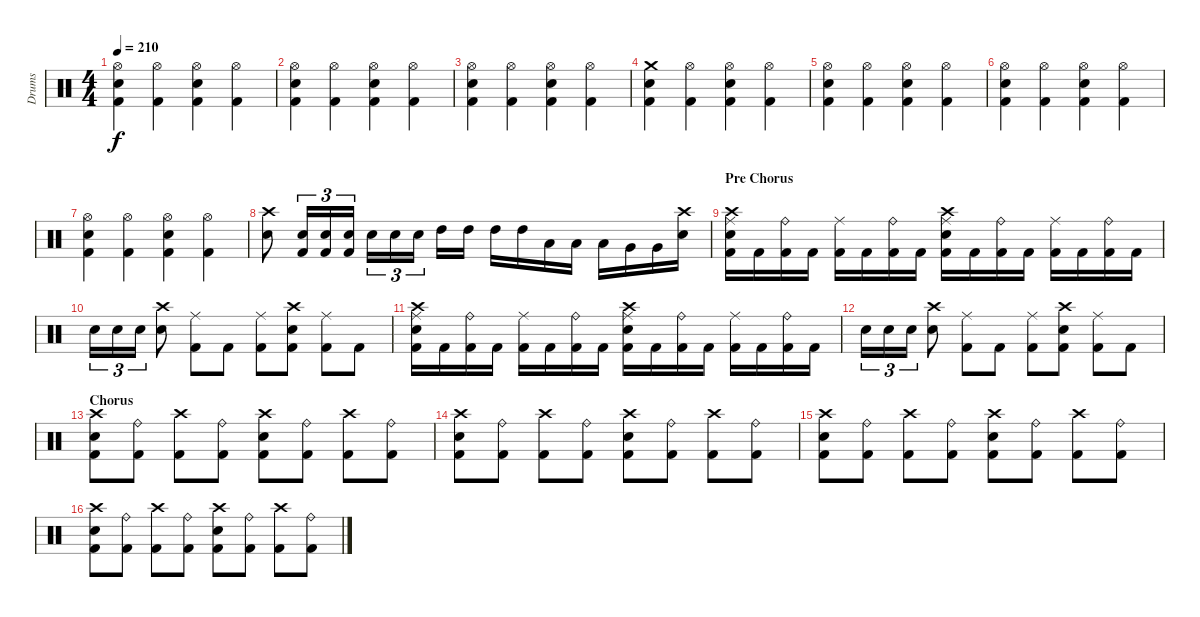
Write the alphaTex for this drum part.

\track ("Drums" "Drums") {instrument percussion}
\staff {score}
\articulation defaults
\ts (4 4)
\tempo 210
\clef neutral
\ks c
("Hi-Hat (open)" "Electric Snare (hit)" "Kick (hit) 2").4{dy f} ("Hi-Hat (open)" "Kick (hit) 2").4 ("Hi-Hat (open)" "Electric Snare (hit)" "Kick (hit) 2").4 ("Hi-Hat (open)" "Kick (hit) 2").4 |
("Hi-Hat (open)" "Electric Snare (hit)" "Kick (hit) 2").4 ("Hi-Hat (open)" "Kick (hit) 2").4 ("Hi-Hat (open)" "Electric Snare (hit)" "Kick (hit) 2").4 ("Hi-Hat (open)" "Kick (hit) 2").4 |
("Hi-Hat (open)" "Electric Snare (hit)" "Kick (hit) 2").4 ("Hi-Hat (open)" "Kick (hit) 2").4 ("Hi-Hat (open)" "Electric Snare (hit)" "Kick (hit) 2").4 ("Hi-Hat (open)" "Kick (hit) 2").4 |
("Crash medium (hit)" "Electric Snare (hit)" "Kick (hit) 2").4 ("Hi-Hat (open)" "Kick (hit) 2").4 ("Hi-Hat (open)" "Electric Snare (hit)" "Kick (hit) 2").4 ("Hi-Hat (open)" "Kick (hit) 2").4 |
("Hi-Hat (open)" "Electric Snare (hit)" "Kick (hit) 2").4 ("Hi-Hat (open)" "Kick (hit) 2").4 ("Hi-Hat (open)" "Electric Snare (hit)" "Kick (hit) 2").4 ("Hi-Hat (open)" "Kick (hit) 2").4 |
("Hi-Hat (open)" "Electric Snare (hit)" "Kick (hit) 2").4 ("Hi-Hat (open)" "Kick (hit) 2").4 ("Hi-Hat (open)" "Electric Snare (hit)" "Kick (hit) 2").4 ("Hi-Hat (open)" "Kick (hit) 2").4 |
("Hi-Hat (open)" "Electric Snare (hit)" "Kick (hit) 2").4 ("Hi-Hat (open)" "Kick (hit) 2").4 ("Hi-Hat (open)" "Electric Snare (hit)" "Kick (hit) 2").4 ("Hi-Hat (open)" "Kick (hit) 2").4 |
("Crash high (hit)" "Electric Snare (hit)").8 ("Kick (hit) 2" "Electric Snare (hit)").16{tu (3 2)} ("Kick (hit) 2" "Electric Snare (hit)").16{tu (3 2)} ("Kick (hit) 2" "Electric Snare (hit)").16{tu (3 2)} "Electric Snare (hit)".16{tu (3 2)} "Electric Snare (hit)".16{tu (3 2)} "Electric Snare (hit)".16{tu (3 2)} "High Tom (hit)".16 "High Tom (hit)".16 "High Tom (hit)".16 "High Tom (hit)".16 "Low Tom (hit)".16 "Low Tom (hit)".16 "Low Tom (hit)".16 "Very Low Tom (hit)".16 "Very Low Tom (hit)".16 ("Electric Snare (hit)" "Crash high (hit)").16 |
\section ("" "Pre Chorus")
("Kick (hit) 2" "Electric Snare (hit)" "Crash high (hit)" "Ride (middle)").16 "Kick (hit) 2".16 ("Kick (hit) 2" "Ride (bell)").16 "Kick (hit) 2".16 ("Kick (hit) 2" "Ride (middle)").16 "Kick (hit) 2".16 ("Kick (hit) 2" "Ride (bell)").16 "Kick (hit) 2".16 ("Kick (hit) 2" "Electric Snare (hit)" "Crash high (hit)" "Ride (middle)").16 "Kick (hit) 2".16 ("Kick (hit) 2" "Ride (bell)").16 "Kick (hit) 2".16 ("Kick (hit) 2" "Ride (middle)").16 "Kick (hit) 2".16 ("Kick (hit) 2" "Ride (bell)").16 "Kick (hit) 2".16 |
"Electric Snare (hit)".16{tu (3 2)} "Electric Snare (hit)".16{tu (3 2)} "Electric Snare (hit)".16{tu (3 2)} ("Crash high (hit)" "Electric Snare (hit)").8 ("Kick (hit) 2" "Ride (middle)").8 "Kick (hit) 2".8 ("Kick (hit) 2" "Ride (middle)").8 ("Kick (hit) 2" "Crash high (hit)" "Electric Snare (hit)").8 ("Kick (hit) 2" "Ride (middle)").8 "Kick (hit) 2".8 |
("Kick (hit) 2" "Electric Snare (hit)" "Crash high (hit)" "Ride (middle)").16 "Kick (hit) 2".16 ("Kick (hit) 2" "Ride (bell)").16 "Kick (hit) 2".16 ("Kick (hit) 2" "Ride (middle)").16 "Kick (hit) 2".16 ("Kick (hit) 2" "Ride (bell)").16 "Kick (hit) 2".16 ("Kick (hit) 2" "Electric Snare (hit)" "Crash high (hit)" "Ride (middle)").16 "Kick (hit) 2".16 ("Kick (hit) 2" "Ride (bell)").16 "Kick (hit) 2".16 ("Kick (hit) 2" "Ride (middle)").16 "Kick (hit) 2".16 ("Kick (hit) 2" "Ride (bell)").16 "Kick (hit) 2".16 |
"Electric Snare (hit)".16{tu (3 2)} "Electric Snare (hit)".16{tu (3 2)} "Electric Snare (hit)".16{tu (3 2)} ("Crash high (hit)" "Electric Snare (hit)").8 ("Kick (hit) 2" "Ride (middle)").8 "Kick (hit) 2".8 ("Kick (hit) 2" "Ride (middle)").8 ("Kick (hit) 2" "Crash high (hit)" "Electric Snare (hit)").8 ("Kick (hit) 2" "Ride (middle)").8 "Kick (hit) 2".8 |
\section ("" "Chorus")
("Kick (hit) 2" "Electric Snare (hit)" "Crash high (hit)").8 ("Kick (hit) 2" "Ride (bell)").8 ("Kick (hit) 2" "Crash high (hit)").8 ("Kick (hit) 2" "Ride (bell)").8 ("Kick (hit) 2" "Crash high (hit)" "Electric Snare (hit)").8 ("Kick (hit) 2" "Ride (bell)").8 ("Kick (hit) 2" "Crash high (hit)").8 ("Kick (hit) 2" "Ride (bell)").8 |
("Kick (hit) 2" "Electric Snare (hit)" "Crash high (hit)").8 ("Kick (hit) 2" "Ride (bell)").8 ("Kick (hit) 2" "Crash high (hit)").8 ("Kick (hit) 2" "Ride (bell)").8 ("Kick (hit) 2" "Crash high (hit)" "Electric Snare (hit)").8 ("Kick (hit) 2" "Ride (bell)").8 ("Kick (hit) 2" "Crash high (hit)").8 ("Kick (hit) 2" "Ride (bell)").8 |
("Kick (hit) 2" "Electric Snare (hit)" "Crash high (hit)").8 ("Kick (hit) 2" "Ride (bell)").8 ("Kick (hit) 2" "Crash high (hit)").8 ("Kick (hit) 2" "Ride (bell)").8 ("Kick (hit) 2" "Crash high (hit)" "Electric Snare (hit)").8 ("Kick (hit) 2" "Ride (bell)").8 ("Kick (hit) 2" "Crash high (hit)").8 ("Kick (hit) 2" "Ride (bell)").8 |
("Kick (hit) 2" "Electric Snare (hit)" "Crash high (hit)").8 ("Kick (hit) 2" "Ride (bell)").8 ("Kick (hit) 2" "Crash high (hit)").8 ("Kick (hit) 2" "Ride (bell)").8 ("Kick (hit) 2" "Crash high (hit)" "Electric Snare (hit)").8 ("Kick (hit) 2" "Ride (bell)").8 ("Kick (hit) 2" "Crash high (hit)").8 ("Kick (hit) 2" "Ride (bell)").8
